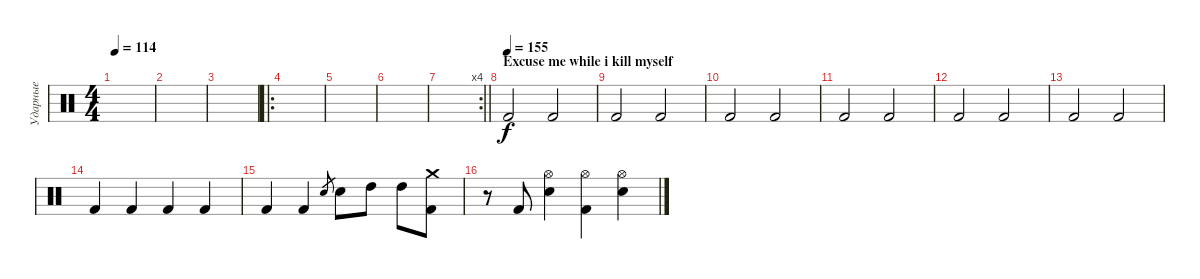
\track ("Ударные" "Ударные") {instrument percussion}
\staff {score}
\articulation defaults
\ts (4 4)
\tempo 114
\clef neutral
\ks c
|
|
|
\ro
|
|
|
\rc 4
\barLineRight lightlight
|
\section ("" "Excuse me while i kill myself")
\tempo (155)
"Kick (hit) 2".2 "Kick (hit) 2".2 |
"Kick (hit) 2".2 "Kick (hit) 2".2 |
"Kick (hit) 2".2 "Kick (hit) 2".2 |
"Kick (hit) 2".2 "Kick (hit) 2".2 |
"Kick (hit) 2".2 "Kick (hit) 2".2 |
"Kick (hit) 2".2 "Kick (hit) 2".2 |
"Kick (hit) 2".4 "Kick (hit) 2".4 "Kick (hit) 2".4 "Kick (hit) 2".4 |
"Kick (hit) 2".4 "Kick (hit) 2".4 "Snare (hit) 2".8{gr} "Snare (hit) 2".8 "High Tom (hit)".8 "High Tom (hit)".8 ("Crash medium (hit)" "Kick (hit) 2").8 |
r.8 "Kick (hit) 2".8 ("Hi-Hat (open)" "Snare (hit) 2").4 ("Hi-Hat (open)" "Kick (hit) 2").4 ("Hi-Hat (open)" "Snare (hit) 2").4
